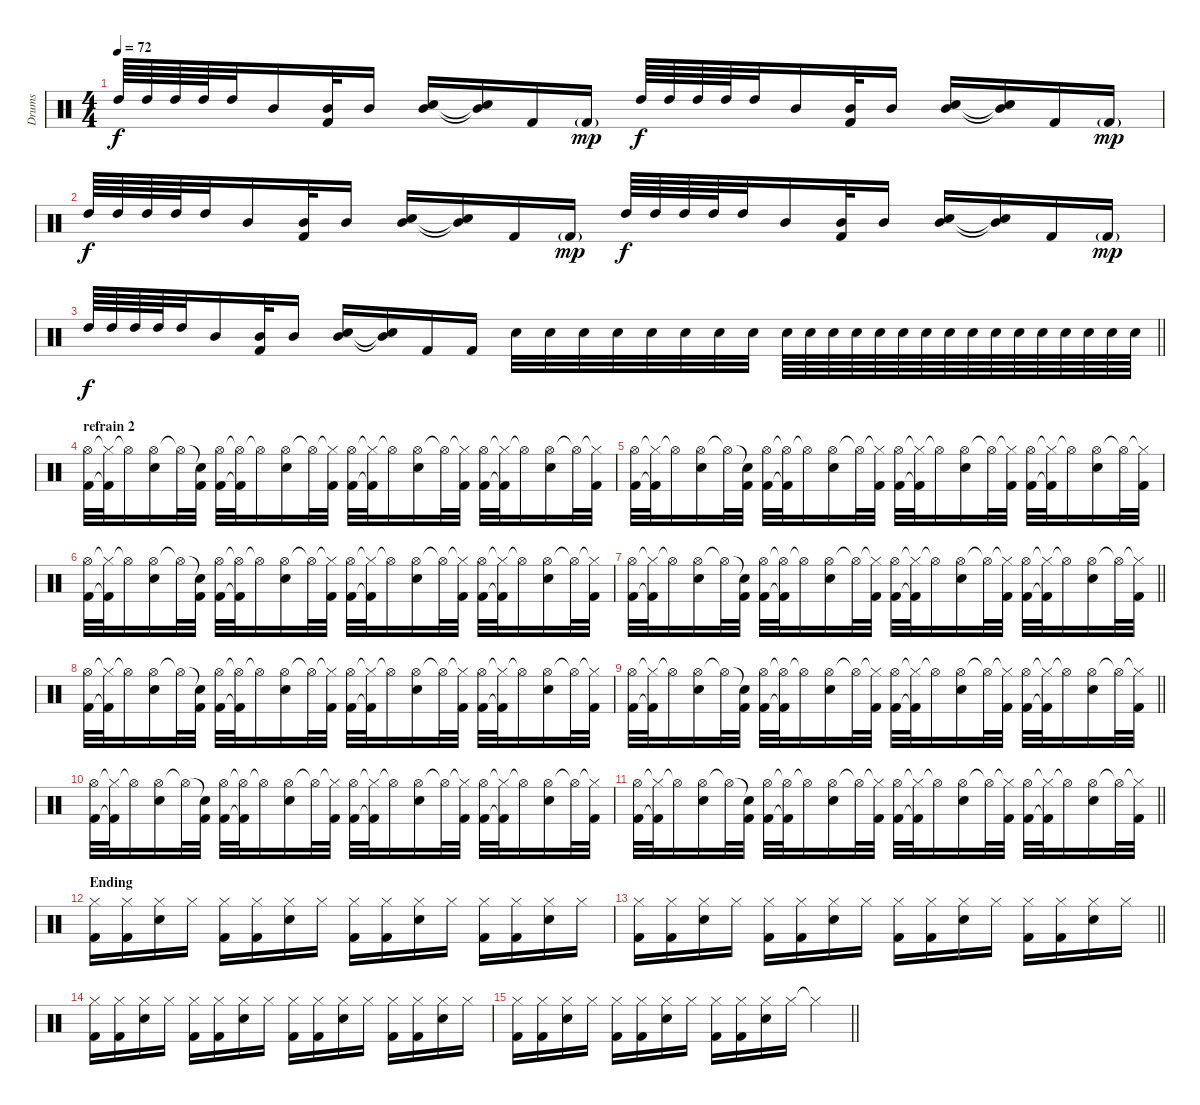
\track ("Drums" "Drums") {instrument percussion}
\staff {score}
\articulation defaults
\ts (4 4)
\tempo 72
\clef neutral
\ks c "High Tom (hit)".64{dy f} "High Tom (hit)".64 "High Tom (hit)".64 "High Tom (hit)".64 "High Tom (hit)".32 "Mid Tom (hit)".16
("Mid Tom (hit)" "Kick (hit) 2").32 "Mid Tom (hit)".16 ("Snare (hit) 2" "Mid Tom (hit)").16 ("Snare (hit) 2"{t} "Mid Tom (hit)"{t}).16 "Kick (hit) 2".16 "Kick (hit) 2"{g}.16{dy mp} "High Tom (hit)".64{dy f} "High Tom (hit)".64 "High Tom (hit)".64 "High Tom (hit)".64 "High Tom (hit)".32 "Mid Tom (hit)".16 ("Mid Tom (hit)" "Kick (hit) 2").32 "Mid Tom (hit)".16 ("Snare (hit) 2" "Mid Tom (hit)").16 ("Snare (hit) 2"{t} "Mid Tom (hit)"{t}).16 "Kick (hit) 2".16 "Kick (hit) 2"{g}.16{dy mp} |
"High Tom (hit)".64{dy f} "High Tom (hit)".64 "High Tom (hit)".64 "High Tom (hit)".64 "High Tom (hit)".32 "Mid Tom (hit)".16 ("Mid Tom (hit)" "Kick (hit) 2").32 "Mid Tom (hit)".16 ("Snare (hit) 2" "Mid Tom (hit)").16 ("Snare (hit) 2"{t} "Mid Tom (hit)"{t}).16 "Kick (hit) 2".16 "Kick (hit) 2"{g}.16{dy mp} "High Tom (hit)".64{dy f} "High Tom (hit)".64 "High Tom (hit)".64 "High Tom (hit)".64 "High Tom (hit)".32 "Mid Tom (hit)".16 ("Mid Tom (hit)" "Kick (hit) 2").32 "Mid Tom (hit)".16 ("Snare (hit) 2" "Mid Tom (hit)").16 ("Snare (hit) 2"{t} "Mid Tom (hit)"{t}).16 "Kick (hit) 2".16 "Kick (hit) 2"{g}.16{dy mp} |
\barLineRight lightlight "High Tom (hit)".64{dy f} "High Tom (hit)".64 "High Tom (hit)".64 "High Tom (hit)".64 "High Tom (hit)".32 "Mid Tom (hit)".16
("Mid Tom (hit)" "Kick (hit) 2").32 "Mid Tom (hit)".16 ("Snare (hit) 2" "Mid Tom (hit)").16 ("Snare (hit) 2"{t} "Mid Tom (hit)"{t}).16 "Kick (hit) 2".16 "Kick (hit) 2".16 "Snare (hit) 2".32 "Snare (hit) 2".32 "Snare (hit) 2".32 "Snare (hit) 2".32 "Snare (hit) 2".32 "Snare (hit) 2".32 "Snare (hit) 2".32 "Snare (hit) 2".32 "Snare (hit) 2".64 "Snare (hit) 2".64 "Snare (hit) 2".64 "Snare (hit) 2".64 "Snare (hit) 2".64 "Snare (hit) 2".64 "Snare (hit) 2".64 "Snare (hit) 2".64 "Snare (hit) 2".64 "Snare (hit) 2".64 "Snare (hit) 2".64 "Snare (hit) 2".64 "Snare (hit) 2".64 "Snare (hit) 2".64 "Snare (hit) 2".64 "Snare (hit) 2".64 |
\section ("" "refrain 2")
("Hi-Hat (open)" "Kick (hit) 2").32 ("Hi-Hat (closed)"{t} "Kick (hit) 2"{t}).32 "Hi-Hat (open)"{t}.16 ("Hi-Hat (open)" "Snare (hit) 2").16 "Hi-Hat (open)"{t}.32 ("Snare (hit)"{t} "Kick (hit) 2").32 ("Hi-Hat (open)" "Kick (hit) 2").32 ("Hi-Hat (open)"{t} "Kick (hit) 2"{t}).32 "Hi-Hat (open)"{t}.16 ("Hi-Hat (open)" "Snare (hit) 2").16 "Hi-Hat (open)"{t}.32 ("Hi-Hat (closed)"{t} "Kick (hit) 2").32 ("Hi-Hat (open)" "Kick (hit) 2").32 ("Hi-Hat (closed)"{t} "Kick (hit) 2"{t}).32 "Hi-Hat (open)"{t}.16 ("Hi-Hat (open)" "Snare (hit) 2").16 "Hi-Hat (open)"{t}.32 ("Hi-Hat (closed)"{t} "Kick (hit) 2").32 ("Hi-Hat (open)" "Kick (hit) 2").32 ("Hi-Hat (closed)"{t} "Kick (hit) 2"{t}).32 "Hi-Hat (open)"{t}.16 ("Hi-Hat (open)" "Snare (hit) 2").16 "Hi-Hat (open)"{t}.32 ("Hi-Hat (closed)"{t} "Kick (hit) 2").32 |
("Hi-Hat (open)" "Kick (hit) 2").32 ("Hi-Hat (closed)"{t} "Kick (hit) 2"{t}).32 "Hi-Hat (open)"{t}.16 ("Hi-Hat (open)" "Snare (hit) 2").16 "Hi-Hat (open)"{t}.32 ("Snare (hit)"{t} "Kick (hit) 2").32 ("Hi-Hat (open)" "Kick (hit) 2").32 ("Hi-Hat (open)"{t} "Kick (hit) 2"{t}).32 "Hi-Hat (open)"{t}.16 ("Hi-Hat (open)" "Snare (hit) 2").16 "Hi-Hat (open)"{t}.32 ("Hi-Hat (closed)"{t} "Kick (hit) 2").32 ("Hi-Hat (open)" "Kick (hit) 2").32 ("Hi-Hat (closed)"{t} "Kick (hit) 2"{t}).32 "Hi-Hat (open)"{t}.16 ("Hi-Hat (open)" "Snare (hit) 2").16 "Hi-Hat (open)"{t}.32 ("Hi-Hat (closed)"{t} "Kick (hit) 2").32 ("Hi-Hat (open)" "Kick (hit) 2").32 ("Hi-Hat (closed)"{t} "Kick (hit) 2"{t}).32 "Hi-Hat (open)"{t}.16 ("Hi-Hat (open)" "Snare (hit) 2").16 "Hi-Hat (open)"{t}.32 ("Hi-Hat (closed)"{t} "Kick (hit) 2").32 |
("Hi-Hat (open)" "Kick (hit) 2").32 ("Hi-Hat (closed)"{t} "Kick (hit) 2"{t}).32 "Hi-Hat (open)"{t}.16 ("Hi-Hat (open)" "Snare (hit) 2").16 "Hi-Hat (open)"{t}.32 ("Snare (hit)"{t} "Kick (hit) 2").32 ("Hi-Hat (open)" "Kick (hit) 2").32 ("Hi-Hat (open)"{t} "Kick (hit) 2"{t}).32 "Hi-Hat (open)"{t}.16 ("Hi-Hat (open)" "Snare (hit) 2").16 "Hi-Hat (open)"{t}.32 ("Hi-Hat (closed)"{t} "Kick (hit) 2").32 ("Hi-Hat (open)" "Kick (hit) 2").32 ("Hi-Hat (closed)"{t} "Kick (hit) 2"{t}).32 "Hi-Hat (open)"{t}.16 ("Hi-Hat (open)" "Snare (hit) 2").16 "Hi-Hat (open)"{t}.32 ("Hi-Hat (closed)"{t} "Kick (hit) 2").32 ("Hi-Hat (open)" "Kick (hit) 2").32 ("Hi-Hat (closed)"{t} "Kick (hit) 2"{t}).32 "Hi-Hat (open)"{t}.16 ("Hi-Hat (open)" "Snare (hit) 2").16 "Hi-Hat (open)"{t}.32 ("Hi-Hat (closed)"{t} "Kick (hit) 2").32 |
\barLineRight lightlight
("Hi-Hat (open)" "Kick (hit) 2").32 ("Hi-Hat (closed)"{t} "Kick (hit) 2"{t}).32 "Hi-Hat (open)"{t}.16 ("Hi-Hat (open)" "Snare (hit) 2").16 "Hi-Hat (open)"{t}.32 ("Snare (hit)"{t} "Kick (hit) 2").32 ("Hi-Hat (open)" "Kick (hit) 2").32 ("Hi-Hat (open)"{t} "Kick (hit) 2"{t}).32 "Hi-Hat (open)"{t}.16 ("Hi-Hat (open)" "Snare (hit) 2").16 "Hi-Hat (open)"{t}.32 ("Hi-Hat (closed)"{t} "Kick (hit) 2").32 ("Hi-Hat (open)" "Kick (hit) 2").32 ("Hi-Hat (closed)"{t} "Kick (hit) 2"{t}).32 "Hi-Hat (open)"{t}.16 ("Hi-Hat (open)" "Snare (hit) 2").16 "Hi-Hat (open)"{t}.32 ("Hi-Hat (closed)"{t} "Kick (hit) 2").32 ("Hi-Hat (open)" "Kick (hit) 2").32 ("Hi-Hat (closed)"{t} "Kick (hit) 2"{t}).32 "Hi-Hat (open)"{t}.16 ("Hi-Hat (open)" "Snare (hit) 2").16 "Hi-Hat (open)"{t}.32 ("Hi-Hat (closed)"{t} "Kick (hit) 2").32 |
("Hi-Hat (open)" "Kick (hit) 2").32 ("Hi-Hat (closed)"{t} "Kick (hit) 2"{t}).32 "Hi-Hat (open)"{t}.16 ("Hi-Hat (open)" "Snare (hit) 2").16 "Hi-Hat (open)"{t}.32 ("Snare (hit)"{t} "Kick (hit) 2").32 ("Hi-Hat (open)" "Kick (hit) 2").32 ("Hi-Hat (open)"{t} "Kick (hit) 2"{t}).32 "Hi-Hat (open)"{t}.16 ("Hi-Hat (open)" "Snare (hit) 2").16 "Hi-Hat (open)"{t}.32 ("Hi-Hat (closed)"{t} "Kick (hit) 2").32 ("Hi-Hat (open)" "Kick (hit) 2").32 ("Hi-Hat (closed)"{t} "Kick (hit) 2"{t}).32 "Hi-Hat (open)"{t}.16 ("Hi-Hat (open)" "Snare (hit) 2").16 "Hi-Hat (open)"{t}.32 ("Hi-Hat (closed)"{t} "Kick (hit) 2").32 ("Hi-Hat (open)" "Kick (hit) 2").32 ("Hi-Hat (closed)"{t} "Kick (hit) 2"{t}).32 "Hi-Hat (open)"{t}.16 ("Hi-Hat (open)" "Snare (hit) 2").16 "Hi-Hat (open)"{t}.32 ("Hi-Hat (closed)"{t} "Kick (hit) 2").32 |
\barLineRight lightlight
("Hi-Hat (open)" "Kick (hit) 2").32 ("Hi-Hat (closed)"{t} "Kick (hit) 2"{t}).32 "Hi-Hat (open)"{t}.16 ("Hi-Hat (open)" "Snare (hit) 2").16 "Hi-Hat (open)"{t}.32 ("Snare (hit)"{t} "Kick (hit) 2").32 ("Hi-Hat (open)" "Kick (hit) 2").32 ("Hi-Hat (open)"{t} "Kick (hit) 2"{t}).32 "Hi-Hat (open)"{t}.16 ("Hi-Hat (open)" "Snare (hit) 2").16 "Hi-Hat (open)"{t}.32 ("Hi-Hat (closed)"{t} "Kick (hit) 2").32 ("Hi-Hat (open)" "Kick (hit) 2").32 ("Hi-Hat (closed)"{t} "Kick (hit) 2"{t}).32 "Hi-Hat (open)"{t}.16 ("Hi-Hat (open)" "Snare (hit) 2").16 "Hi-Hat (open)"{t}.32 ("Hi-Hat (closed)"{t} "Kick (hit) 2").32 ("Hi-Hat (open)" "Kick (hit) 2").32 ("Hi-Hat (closed)"{t} "Kick (hit) 2"{t}).32 "Hi-Hat (open)"{t}.16 ("Hi-Hat (open)" "Snare (hit) 2").16 "Hi-Hat (open)"{t}.32 ("Hi-Hat (closed)"{t} "Kick (hit) 2").32 |
("Hi-Hat (open)" "Kick (hit) 2").32 ("Hi-Hat (closed)"{t} "Kick (hit) 2"{t}).32 "Hi-Hat (open)"{t}.16 ("Hi-Hat (open)" "Snare (hit) 2").16 "Hi-Hat (open)"{t}.32 ("Snare (hit)"{t} "Kick (hit) 2").32 ("Hi-Hat (open)" "Kick (hit) 2").32 ("Hi-Hat (open)"{t} "Kick (hit) 2"{t}).32 "Hi-Hat (open)"{t}.16 ("Hi-Hat (open)" "Snare (hit) 2").16 "Hi-Hat (open)"{t}.32 ("Hi-Hat (closed)"{t} "Kick (hit) 2").32 ("Hi-Hat (open)" "Kick (hit) 2").32 ("Hi-Hat (closed)"{t} "Kick (hit) 2"{t}).32 "Hi-Hat (open)"{t}.16 ("Hi-Hat (open)" "Snare (hit) 2").16 "Hi-Hat (open)"{t}.32 ("Hi-Hat (closed)"{t} "Kick (hit) 2").32 ("Hi-Hat (open)" "Kick (hit) 2").32 ("Hi-Hat (closed)"{t} "Kick (hit) 2"{t}).32 "Hi-Hat (open)"{t}.16 ("Hi-Hat (open)" "Snare (hit) 2").16 "Hi-Hat (open)"{t}.32 ("Hi-Hat (closed)"{t} "Kick (hit) 2").32 |
\barLineRight lightlight
("Hi-Hat (open)" "Kick (hit) 2").32 ("Hi-Hat (closed)"{t} "Kick (hit) 2"{t}).32 "Hi-Hat (open)"{t}.16 ("Hi-Hat (open)" "Snare (hit) 2").16 "Hi-Hat (open)"{t}.32 ("Snare (hit)"{t} "Kick (hit) 2").32 ("Hi-Hat (open)" "Kick (hit) 2").32 ("Hi-Hat (open)"{t} "Kick (hit) 2"{t}).32 "Hi-Hat (open)"{t}.16 ("Hi-Hat (open)" "Snare (hit) 2").16 "Hi-Hat (open)"{t}.32 ("Hi-Hat (closed)"{t} "Kick (hit) 2").32 ("Hi-Hat (open)" "Kick (hit) 2").32 ("Hi-Hat (closed)"{t} "Kick (hit) 2"{t}).32 "Hi-Hat (open)"{t}.16 ("Hi-Hat (open)" "Snare (hit) 2").16 "Hi-Hat (open)"{t}.32 ("Hi-Hat (closed)"{t} "Kick (hit) 2").32 ("Hi-Hat (open)" "Kick (hit) 2").32 ("Hi-Hat (closed)"{t} "Kick (hit) 2"{t}).32 "Hi-Hat (open)"{t}.16 ("Hi-Hat (open)" "Snare (hit) 2").16 "Hi-Hat (open)"{t}.32 ("Hi-Hat (closed)"{t} "Kick (hit) 2").32 |
\section ("" "Ending")
("Hi-Hat (closed)" "Kick (hit) 2").16 ("Hi-Hat (closed)" "Kick (hit) 2").16 ("Hi-Hat (closed)" "Snare (hit) 2").16 "Hi-Hat (closed)".16 ("Hi-Hat (closed)" "Kick (hit) 2").16 ("Hi-Hat (closed)" "Kick (hit) 2").16 ("Hi-Hat (closed)" "Snare (hit) 2").16 "Hi-Hat (closed)".16 ("Hi-Hat (closed)" "Kick (hit) 2").16 ("Hi-Hat (closed)" "Kick (hit) 2").16 ("Hi-Hat (closed)" "Snare (hit) 2").16 "Hi-Hat (closed)".16 ("Hi-Hat (closed)" "Kick (hit) 2").16 ("Hi-Hat (closed)" "Kick (hit) 2").16 ("Hi-Hat (closed)" "Snare (hit) 2").16 "Hi-Hat (closed)".16 |
\barLineRight lightlight
("Hi-Hat (closed)" "Kick (hit) 2").16 ("Hi-Hat (closed)" "Kick (hit) 2").16 ("Hi-Hat (closed)" "Snare (hit) 2").16 "Hi-Hat (closed)".16 ("Hi-Hat (closed)" "Kick (hit) 2").16 ("Hi-Hat (closed)" "Kick (hit) 2").16 ("Hi-Hat (closed)" "Snare (hit) 2").16 "Hi-Hat (closed)".16 ("Hi-Hat (closed)" "Kick (hit) 2").16 ("Hi-Hat (closed)" "Kick (hit) 2").16 ("Hi-Hat (closed)" "Snare (hit) 2").16 "Hi-Hat (closed)".16 ("Hi-Hat (closed)" "Kick (hit) 2").16 ("Hi-Hat (closed)" "Kick (hit) 2").16 ("Hi-Hat (closed)" "Snare (hit) 2").16 "Hi-Hat (closed)".16 |
("Hi-Hat (closed)" "Kick (hit) 2").16 ("Hi-Hat (closed)" "Kick (hit) 2").16 ("Hi-Hat (closed)" "Snare (hit) 2").16 "Hi-Hat (closed)".16 ("Hi-Hat (closed)" "Kick (hit) 2").16 ("Hi-Hat (closed)" "Kick (hit) 2").16 ("Hi-Hat (closed)" "Snare (hit) 2").16 "Hi-Hat (closed)".16 ("Hi-Hat (closed)" "Kick (hit) 2").16 ("Hi-Hat (closed)" "Kick (hit) 2").16 ("Hi-Hat (closed)" "Snare (hit) 2").16 "Hi-Hat (closed)".16 ("Hi-Hat (closed)" "Kick (hit) 2").16 ("Hi-Hat (closed)" "Kick (hit) 2").16 ("Hi-Hat (closed)" "Snare (hit) 2").16 "Hi-Hat (closed)".16 |
\barLineRight lightlight
("Hi-Hat (closed)" "Kick (hit) 2").16 ("Hi-Hat (closed)" "Kick (hit) 2").16 ("Hi-Hat (closed)" "Snare (hit) 2").16 "Hi-Hat (closed)".16 ("Hi-Hat (closed)" "Kick (hit) 2").16 ("Hi-Hat (closed)" "Kick (hit) 2").16 ("Hi-Hat (closed)" "Snare (hit) 2").16 "Hi-Hat (closed)".16 ("Hi-Hat (closed)" "Kick (hit) 2").16 ("Hi-Hat (closed)" "Kick (hit) 2").16 ("Hi-Hat (closed)" "Snare (hit) 2").16 "Hi-Hat (closed)".16 "Hi-Hat (closed)"{t}.4
